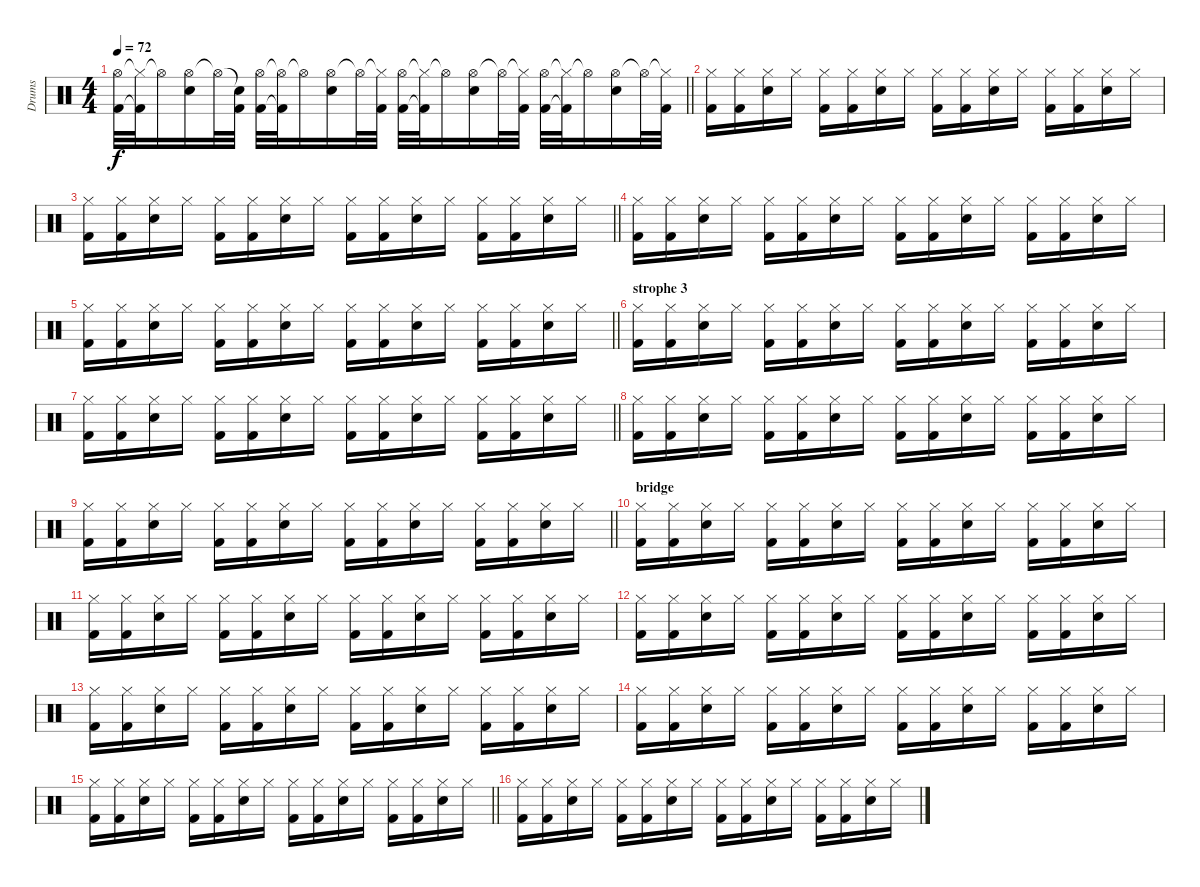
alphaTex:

\track ("Drums" "Drums") {instrument percussion}
\staff {score}
\articulation defaults
\ts (4 4)
\tempo 72
\clef neutral
\barLineRight lightlight
\ks c
("Hi-Hat (open)" "Kick (hit) 2").32{dy f} ("Hi-Hat (closed)"{t} "Kick (hit) 2"{t}).32 "Hi-Hat (open)"{t}.16 ("Hi-Hat (open)" "Snare (hit) 2").16 "Hi-Hat (open)"{t}.32 ("Snare (hit)"{t} "Kick (hit) 2").32 ("Hi-Hat (open)" "Kick (hit) 2").32 ("Hi-Hat (open)"{t} "Kick (hit) 2"{t}).32 "Hi-Hat (open)"{t}.16 ("Hi-Hat (open)" "Snare (hit) 2").16 "Hi-Hat (open)"{t}.32 ("Hi-Hat (closed)"{t} "Kick (hit) 2").32 ("Hi-Hat (open)" "Kick (hit) 2").32 ("Hi-Hat (closed)"{t} "Kick (hit) 2"{t}).32 "Hi-Hat (open)"{t}.16 ("Hi-Hat (open)" "Snare (hit) 2").16 "Hi-Hat (open)"{t}.32 ("Hi-Hat (closed)"{t} "Kick (hit) 2").32 ("Hi-Hat (open)" "Kick (hit) 2").32 ("Hi-Hat (closed)"{t} "Kick (hit) 2"{t}).32 "Hi-Hat (open)"{t}.16 ("Hi-Hat (open)" "Snare (hit) 2").16 "Hi-Hat (open)"{t}.32 ("Hi-Hat (closed)"{t} "Kick (hit) 2").32 |
("Hi-Hat (closed)" "Kick (hit) 2").16 ("Hi-Hat (closed)" "Kick (hit) 2").16 ("Hi-Hat (closed)" "Snare (hit) 2").16 "Hi-Hat (closed)".16 ("Hi-Hat (closed)" "Kick (hit) 2").16 ("Hi-Hat (closed)" "Kick (hit) 2").16 ("Hi-Hat (closed)" "Snare (hit) 2").16 "Hi-Hat (closed)".16 ("Hi-Hat (closed)" "Kick (hit) 2").16 ("Hi-Hat (closed)" "Kick (hit) 2").16 ("Hi-Hat (closed)" "Snare (hit) 2").16 "Hi-Hat (closed)".16 ("Hi-Hat (closed)" "Kick (hit) 2").16 ("Hi-Hat (closed)" "Kick (hit) 2").16 ("Hi-Hat (closed)" "Snare (hit) 2").16 "Hi-Hat (closed)".16 |
\barLineRight lightlight
("Hi-Hat (closed)" "Kick (hit) 2").16 ("Hi-Hat (closed)" "Kick (hit) 2").16 ("Hi-Hat (closed)" "Snare (hit) 2").16 "Hi-Hat (closed)".16 ("Hi-Hat (closed)" "Kick (hit) 2").16 ("Hi-Hat (closed)" "Kick (hit) 2").16 ("Hi-Hat (closed)" "Snare (hit) 2").16 "Hi-Hat (closed)".16 ("Hi-Hat (closed)" "Kick (hit) 2").16 ("Hi-Hat (closed)" "Kick (hit) 2").16 ("Hi-Hat (closed)" "Snare (hit) 2").16 "Hi-Hat (closed)".16 ("Hi-Hat (closed)" "Kick (hit) 2").16 ("Hi-Hat (closed)" "Kick (hit) 2").16 ("Hi-Hat (closed)" "Snare (hit) 2").16 "Hi-Hat (closed)".16 |
("Hi-Hat (closed)" "Kick (hit) 2").16 ("Hi-Hat (closed)" "Kick (hit) 2").16 ("Hi-Hat (closed)" "Snare (hit) 2").16 "Hi-Hat (closed)".16 ("Hi-Hat (closed)" "Kick (hit) 2").16 ("Hi-Hat (closed)" "Kick (hit) 2").16 ("Hi-Hat (closed)" "Snare (hit) 2").16 "Hi-Hat (closed)".16 ("Hi-Hat (closed)" "Kick (hit) 2").16 ("Hi-Hat (closed)" "Kick (hit) 2").16 ("Hi-Hat (closed)" "Snare (hit) 2").16 "Hi-Hat (closed)".16 ("Hi-Hat (closed)" "Kick (hit) 2").16 ("Hi-Hat (closed)" "Kick (hit) 2").16 ("Hi-Hat (closed)" "Snare (hit) 2").16 "Hi-Hat (closed)".16 |
\barLineRight lightlight
("Hi-Hat (closed)" "Kick (hit) 2").16 ("Hi-Hat (closed)" "Kick (hit) 2").16 ("Hi-Hat (closed)" "Snare (hit) 2").16 "Hi-Hat (closed)".16 ("Hi-Hat (closed)" "Kick (hit) 2").16 ("Hi-Hat (closed)" "Kick (hit) 2").16 ("Hi-Hat (closed)" "Snare (hit) 2").16 "Hi-Hat (closed)".16 ("Hi-Hat (closed)" "Kick (hit) 2").16 ("Hi-Hat (closed)" "Kick (hit) 2").16 ("Hi-Hat (closed)" "Snare (hit) 2").16 "Hi-Hat (closed)".16 ("Hi-Hat (closed)" "Kick (hit) 2").16 ("Hi-Hat (closed)" "Kick (hit) 2").16 ("Hi-Hat (closed)" "Snare (hit) 2").16 "Hi-Hat (closed)".16 |
\section ("" "strophe 3")
("Hi-Hat (closed)" "Kick (hit) 2").16 ("Hi-Hat (closed)" "Kick (hit) 2").16 ("Hi-Hat (closed)" "Snare (hit) 2").16 "Hi-Hat (closed)".16 ("Hi-Hat (closed)" "Kick (hit) 2").16 ("Hi-Hat (closed)" "Kick (hit) 2").16 ("Hi-Hat (closed)" "Snare (hit) 2").16 "Hi-Hat (closed)".16 ("Hi-Hat (closed)" "Kick (hit) 2").16 ("Hi-Hat (closed)" "Kick (hit) 2").16 ("Hi-Hat (closed)" "Snare (hit) 2").16 "Hi-Hat (closed)".16 ("Hi-Hat (closed)" "Kick (hit) 2").16 ("Hi-Hat (closed)" "Kick (hit) 2").16 ("Hi-Hat (closed)" "Snare (hit) 2").16 "Hi-Hat (closed)".16 |
\barLineRight lightlight
("Hi-Hat (closed)" "Kick (hit) 2").16 ("Hi-Hat (closed)" "Kick (hit) 2").16 ("Hi-Hat (closed)" "Snare (hit) 2").16 "Hi-Hat (closed)".16 ("Hi-Hat (closed)" "Kick (hit) 2").16 ("Hi-Hat (closed)" "Kick (hit) 2").16 ("Hi-Hat (closed)" "Snare (hit) 2").16 "Hi-Hat (closed)".16 ("Hi-Hat (closed)" "Kick (hit) 2").16 ("Hi-Hat (closed)" "Kick (hit) 2").16 ("Hi-Hat (closed)" "Snare (hit) 2").16 "Hi-Hat (closed)".16 ("Hi-Hat (closed)" "Kick (hit) 2").16 ("Hi-Hat (closed)" "Kick (hit) 2").16 ("Hi-Hat (closed)" "Snare (hit) 2").16 "Hi-Hat (closed)".16 |
("Hi-Hat (closed)" "Kick (hit) 2").16 ("Hi-Hat (closed)" "Kick (hit) 2").16 ("Hi-Hat (closed)" "Snare (hit) 2").16 "Hi-Hat (closed)".16 ("Hi-Hat (closed)" "Kick (hit) 2").16 ("Hi-Hat (closed)" "Kick (hit) 2").16 ("Hi-Hat (closed)" "Snare (hit) 2").16 "Hi-Hat (closed)".16 ("Hi-Hat (closed)" "Kick (hit) 2").16 ("Hi-Hat (closed)" "Kick (hit) 2").16 ("Hi-Hat (closed)" "Snare (hit) 2").16 "Hi-Hat (closed)".16 ("Hi-Hat (closed)" "Kick (hit) 2").16 ("Hi-Hat (closed)" "Kick (hit) 2").16 ("Hi-Hat (closed)" "Snare (hit) 2").16 "Hi-Hat (closed)".16 |
\barLineRight lightlight
("Hi-Hat (closed)" "Kick (hit) 2").16 ("Hi-Hat (closed)" "Kick (hit) 2").16 ("Hi-Hat (closed)" "Snare (hit) 2").16 "Hi-Hat (closed)".16 ("Hi-Hat (closed)" "Kick (hit) 2").16 ("Hi-Hat (closed)" "Kick (hit) 2").16 ("Hi-Hat (closed)" "Snare (hit) 2").16 "Hi-Hat (closed)".16 ("Hi-Hat (closed)" "Kick (hit) 2").16 ("Hi-Hat (closed)" "Kick (hit) 2").16 ("Hi-Hat (closed)" "Snare (hit) 2").16 "Hi-Hat (closed)".16 ("Hi-Hat (closed)" "Kick (hit) 2").16 ("Hi-Hat (closed)" "Kick (hit) 2").16 ("Hi-Hat (closed)" "Snare (hit) 2").16 "Hi-Hat (closed)".16 |
\section ("" "bridge")
("Hi-Hat (closed)" "Kick (hit) 2").16 ("Hi-Hat (closed)" "Kick (hit) 2").16 ("Hi-Hat (closed)" "Snare (hit) 2").16 "Hi-Hat (closed)".16 ("Hi-Hat (closed)" "Kick (hit) 2").16 ("Hi-Hat (closed)" "Kick (hit) 2").16 ("Hi-Hat (closed)" "Snare (hit) 2").16 "Hi-Hat (closed)".16 ("Hi-Hat (closed)" "Kick (hit) 2").16 ("Hi-Hat (closed)" "Kick (hit) 2").16 ("Hi-Hat (closed)" "Snare (hit) 2").16 "Hi-Hat (closed)".16 ("Hi-Hat (closed)" "Kick (hit) 2").16 ("Hi-Hat (closed)" "Kick (hit) 2").16 ("Hi-Hat (closed)" "Snare (hit) 2").16 "Hi-Hat (closed)".16 |
("Hi-Hat (closed)" "Kick (hit) 2").16 ("Hi-Hat (closed)" "Kick (hit) 2").16 ("Hi-Hat (closed)" "Snare (hit) 2").16 "Hi-Hat (closed)".16 ("Hi-Hat (closed)" "Kick (hit) 2").16 ("Hi-Hat (closed)" "Kick (hit) 2").16 ("Hi-Hat (closed)" "Snare (hit) 2").16 "Hi-Hat (closed)".16 ("Hi-Hat (closed)" "Kick (hit) 2").16 ("Hi-Hat (closed)" "Kick (hit) 2").16 ("Hi-Hat (closed)" "Snare (hit) 2").16 "Hi-Hat (closed)".16 ("Hi-Hat (closed)" "Kick (hit) 2").16 ("Hi-Hat (closed)" "Kick (hit) 2").16 ("Hi-Hat (closed)" "Snare (hit) 2").16 "Hi-Hat (closed)".16 |
("Hi-Hat (closed)" "Kick (hit) 2").16 ("Hi-Hat (closed)" "Kick (hit) 2").16 ("Hi-Hat (closed)" "Snare (hit) 2").16 "Hi-Hat (closed)".16 ("Hi-Hat (closed)" "Kick (hit) 2").16 ("Hi-Hat (closed)" "Kick (hit) 2").16 ("Hi-Hat (closed)" "Snare (hit) 2").16 "Hi-Hat (closed)".16 ("Hi-Hat (closed)" "Kick (hit) 2").16 ("Hi-Hat (closed)" "Kick (hit) 2").16 ("Hi-Hat (closed)" "Snare (hit) 2").16 "Hi-Hat (closed)".16 ("Hi-Hat (closed)" "Kick (hit) 2").16 ("Hi-Hat (closed)" "Kick (hit) 2").16 ("Hi-Hat (closed)" "Snare (hit) 2").16 "Hi-Hat (closed)".16 |
("Hi-Hat (closed)" "Kick (hit) 2").16 ("Hi-Hat (closed)" "Kick (hit) 2").16 ("Hi-Hat (closed)" "Snare (hit) 2").16 "Hi-Hat (closed)".16 ("Hi-Hat (closed)" "Kick (hit) 2").16 ("Hi-Hat (closed)" "Kick (hit) 2").16 ("Hi-Hat (closed)" "Snare (hit) 2").16 "Hi-Hat (closed)".16 ("Hi-Hat (closed)" "Kick (hit) 2").16 ("Hi-Hat (closed)" "Kick (hit) 2").16 ("Hi-Hat (closed)" "Snare (hit) 2").16 "Hi-Hat (closed)".16 ("Hi-Hat (closed)" "Kick (hit) 2").16 ("Hi-Hat (closed)" "Kick (hit) 2").16 ("Hi-Hat (closed)" "Snare (hit) 2").16 "Hi-Hat (closed)".16 |
("Hi-Hat (closed)" "Kick (hit) 2").16 ("Hi-Hat (closed)" "Kick (hit) 2").16 ("Hi-Hat (closed)" "Snare (hit) 2").16 "Hi-Hat (closed)".16 ("Hi-Hat (closed)" "Kick (hit) 2").16 ("Hi-Hat (closed)" "Kick (hit) 2").16 ("Hi-Hat (closed)" "Snare (hit) 2").16 "Hi-Hat (closed)".16 ("Hi-Hat (closed)" "Kick (hit) 2").16 ("Hi-Hat (closed)" "Kick (hit) 2").16 ("Hi-Hat (closed)" "Snare (hit) 2").16 "Hi-Hat (closed)".16 ("Hi-Hat (closed)" "Kick (hit) 2").16 ("Hi-Hat (closed)" "Kick (hit) 2").16 ("Hi-Hat (closed)" "Snare (hit) 2").16 "Hi-Hat (closed)".16 |
\barLineRight lightlight
("Hi-Hat (closed)" "Kick (hit) 2").16 ("Hi-Hat (closed)" "Kick (hit) 2").16 ("Hi-Hat (closed)" "Snare (hit) 2").16 "Hi-Hat (closed)".16 ("Hi-Hat (closed)" "Kick (hit) 2").16 ("Hi-Hat (closed)" "Kick (hit) 2").16 ("Hi-Hat (closed)" "Snare (hit) 2").16 "Hi-Hat (closed)".16 ("Hi-Hat (closed)" "Kick (hit) 2").16 ("Hi-Hat (closed)" "Kick (hit) 2").16 ("Hi-Hat (closed)" "Snare (hit) 2").16 "Hi-Hat (closed)".16 ("Hi-Hat (closed)" "Kick (hit) 2").16 ("Hi-Hat (closed)" "Kick (hit) 2").16 ("Hi-Hat (closed)" "Snare (hit) 2").16 "Hi-Hat (closed)".16 |
("Hi-Hat (closed)" "Kick (hit) 2").16 ("Hi-Hat (closed)" "Kick (hit) 2").16 ("Hi-Hat (closed)" "Snare (hit) 2").16 "Hi-Hat (closed)".16 ("Hi-Hat (closed)" "Kick (hit) 2").16 ("Hi-Hat (closed)" "Kick (hit) 2").16 ("Hi-Hat (closed)" "Snare (hit) 2").16 "Hi-Hat (closed)".16 ("Hi-Hat (closed)" "Kick (hit) 2").16 ("Hi-Hat (closed)" "Kick (hit) 2").16 ("Hi-Hat (closed)" "Snare (hit) 2").16 "Hi-Hat (closed)".16 ("Hi-Hat (closed)" "Kick (hit) 2").16 ("Hi-Hat (closed)" "Kick (hit) 2").16 ("Hi-Hat (closed)" "Snare (hit) 2").16 "Hi-Hat (closed)".16
